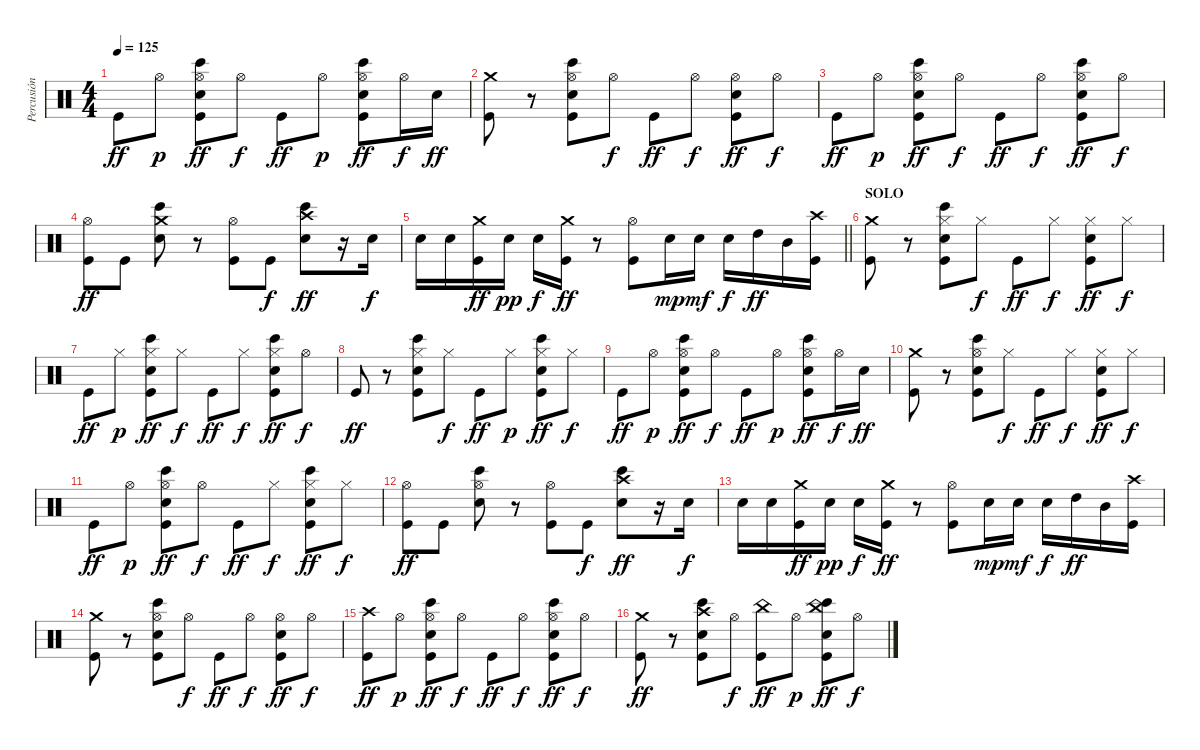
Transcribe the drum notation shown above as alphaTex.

\track ("Percusión" "Percusión") {instrument percussion}
\staff {score}
\articulation defaults
\ts (4 4)
\tempo 125
\clef neutral
\ks c "Kick (hit)".8{dy ff} "Hi-Hat (open)".8{dy p}
("Hi-Hat (open)" "Bongo High (hit)" "Snare (hit) 2" "Kick (hit)").8{dy ff} "Hi-Hat (open)".8{dy f} "Kick (hit)".8{dy ff} "Hi-Hat (open)".8{dy p} ("Hi-Hat (open)" "Bongo High (hit)" "Snare (hit) 2" "Kick (hit)").8{dy ff} "Hi-Hat (open)".16{dy f} "Snare (hit) 2".16{dy ff} |
("Crash medium (hit)" "Kick (hit)").8 r.8 ("Hi-Hat (open)" "Bongo High (hit)" "Snare (hit) 2" "Kick (hit)").8 "Hi-Hat (open)".8{dy f} "Kick (hit)".8{dy ff} "Hi-Hat (open)".8{dy f} ("Hi-Hat (open)" "Snare (hit) 2" "Kick (hit)").8{dy ff} "Hi-Hat (open)".8{dy f} |
"Kick (hit)".8{dy ff} "Hi-Hat (open)".8{dy p} ("Hi-Hat (open)" "Bongo High (hit)" "Snare (hit) 2" "Kick (hit)").8{dy ff} "Hi-Hat (open)".8{dy f} "Kick (hit)".8{dy ff} "Hi-Hat (open)".8{dy f} ("Hi-Hat (open)" "Bongo High (hit)" "Snare (hit) 2" "Kick (hit)").8{dy ff} "Hi-Hat (open)".8{dy f} |
("Hi-Hat (open)" "Kick (hit)").8{dy ff} "Kick (hit)".8 ("Crash medium (hit)" "Bongo High (hit)" "Snare (hit) 2").8 r.8 ("Hi-Hat (open)" "Kick (hit)").8 "Kick (hit)".8{dy f} ("Crash high (hit)" "Bongo High (hit)" "Snare (hit) 2").8{dy ff} r.16 "Snare (hit) 2".16{dy f} |
\barLineRight lightlight "Snare (hit) 2".16 "Snare (hit) 2".16
("Crash medium (hit)" "Kick (hit)").16{dy ff} "Snare (hit) 2".16{dy pp} "Snare (hit) 2".16{dy f} ("Crash medium (hit)" "Kick (hit)").16{dy ff} r.8 ("Hi-Hat (open)" "Kick (hit)").8 "Snare (hit) 2".16{dy mp} "Snare (hit) 2".16{dy mf} "Snare (hit) 2".16{dy f} "High Tom (hit)".16{dy ff} "Mid Tom (hit)".16 ("Crash high (hit)" "Kick (hit)").16 |
\section ("" "SOLO")
("Crash medium (hit)" "Kick (hit)").8 r.8 ("Hi-Hat (closed)" "Bongo High (hit)" "Snare (hit) 2" "Kick (hit)").8 "Hi-Hat (closed)".8{dy f} "Kick (hit)".8{dy ff} "Hi-Hat (closed)".8{dy f} ("Hi-Hat (closed)" "Snare (hit) 2" "Kick (hit)").8{dy ff} "Hi-Hat (closed)".8{dy f} |
"Kick (hit)".8{dy ff} "Hi-Hat (closed)".8{dy p} ("Hi-Hat (closed)" "Bongo High (hit)" "Snare (hit) 2" "Kick (hit)").8{dy ff} "Hi-Hat (closed)".8{dy f} "Kick (hit)".8{dy ff} "Hi-Hat (closed)".8{dy f} ("Hi-Hat (closed)" "Bongo High (hit)" "Snare (hit) 2" "Kick (hit)").8{dy ff} "Hi-Hat (open)".8{dy f} |
"Kick (hit)".8{dy ff} r.8 ("Hi-Hat (closed)" "Bongo High (hit)" "Snare (hit) 2" "Kick (hit)").8 "Hi-Hat (closed)".8{dy f} "Kick (hit)".8{dy ff} "Hi-Hat (closed)".8{dy p} ("Hi-Hat (closed)" "Bongo High (hit)" "Snare (hit) 2" "Kick (hit)").8{dy ff} "Hi-Hat (closed)".8{dy f} |
"Kick (hit)".8{dy ff} "Hi-Hat (open)".8{dy p} ("Hi-Hat (open)" "Bongo High (hit)" "Snare (hit) 2" "Kick (hit)").8{dy ff} "Hi-Hat (open)".8{dy f} "Kick (hit)".8{dy ff} "Hi-Hat (open)".8{dy p} ("Hi-Hat (open)" "Bongo High (hit)" "Snare (hit) 2" "Kick (hit)").8{dy ff} "Hi-Hat (open)".16{dy f} "Snare (hit) 2".16{dy ff} |
("Crash medium (hit)" "Kick (hit)").8 r.8 ("Hi-Hat (open)" "Bongo High (hit)" "Snare (hit) 2" "Kick (hit)").8 "Hi-Hat (closed)".8{dy f} "Kick (hit)".8{dy ff} "Hi-Hat (closed)".8{dy f} ("Hi-Hat (closed)" "Snare (hit) 2" "Kick (hit)").8{dy ff} "Hi-Hat (closed)".8{dy f} |
"Kick (hit)".8{dy ff} "Hi-Hat (open)".8{dy p} ("Hi-Hat (open)" "Bongo High (hit)" "Snare (hit) 2" "Kick (hit)").8{dy ff} "Hi-Hat (open)".8{dy f} "Kick (hit)".8{dy ff} "Hi-Hat (closed)".8{dy f} ("Hi-Hat (closed)" "Bongo High (hit)" "Snare (hit) 2" "Kick (hit)").8{dy ff} "Hi-Hat (closed)".8{dy f} |
("Hi-Hat (open)" "Kick (hit)").8{dy ff} "Kick (hit)".8 ("Hi-Hat (open)" "Bongo High (hit)" "Snare (hit) 2").8 r.8 ("Hi-Hat (open)" "Kick (hit)").8 "Kick (hit)".8{dy f} ("Crash high (hit)" "Bongo High (hit)" "Snare (hit) 2").8{dy ff} r.16 "Snare (hit) 2".16{dy f} |
"Snare (hit) 2".16 "Snare (hit) 2".16 ("Crash medium (hit)" "Kick (hit)").16{dy ff} "Snare (hit) 2".16{dy pp} "Snare (hit) 2".16{dy f} ("Crash medium (hit)" "Kick (hit)").16{dy ff} r.8 ("Hi-Hat (open)" "Kick (hit)").8 "Snare (hit) 2".16{dy mp} "Snare (hit) 2".16{dy mf} "Snare (hit) 2".16{dy f} "High Tom (hit)".16{dy ff} "Mid Tom (hit)".16 ("Crash high (hit)" "Kick (hit)").16 |
("Crash medium (hit)" "Kick (hit)").8 r.8 ("Hi-Hat (open)" "Bongo High (hit)" "Snare (hit) 2" "Kick (hit)").8 "Hi-Hat (open)".8{dy f} "Kick (hit)".8{dy ff} "Hi-Hat (open)".8{dy f} ("Hi-Hat (open)" "Snare (hit) 2" "Kick (hit)").8{dy ff} "Hi-Hat (open)".8{dy f} |
("Crash high (hit)" "Kick (hit)").8{dy ff} "Hi-Hat (open)".8{dy p} ("Hi-Hat (open)" "Bongo High (hit)" "Snare (hit) 2" "Kick (hit)").8{dy ff} "Hi-Hat (open)".8{dy f} "Kick (hit)".8{dy ff} "Hi-Hat (open)".8{dy f} ("Hi-Hat (open)" "Bongo High (hit)" "Snare (hit) 2" "Kick (hit)").8{dy ff} "Hi-Hat (open)".8{dy f} |
("Crash medium (hit)" "Kick (hit)").8{dy ff} r.8 ("Crash high (hit)" "Bongo High (hit)" "Snare (hit) 2" "Kick (hit)").8 "Hi-Hat (open)".8{dy f} ("China (hit)" "Kick (hit)").8{dy ff} "Hi-Hat (open)".8{dy p} ("China (hit)" "Bongo High (hit)" "Snare (hit) 2" "Kick (hit)").8{dy ff} "Hi-Hat (open)".8{dy f}
